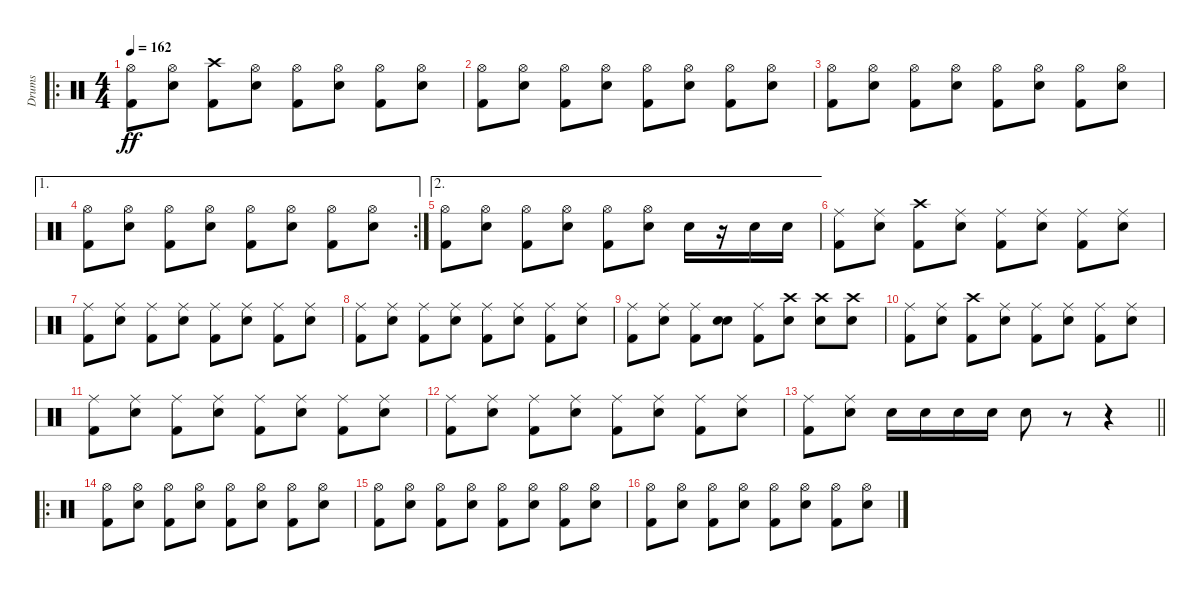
\track ("Drums" "Drums") {instrument percussion}
\staff {score}
\articulation defaults
\ro
\ts (4 4)
\tempo 162
\clef neutral
\ks c
("Hi-Hat (open)" "Kick (hit) 2").8{dy ff} ("Hi-Hat (open)" "Electric Snare (hit)").8 ("Crash high (hit)" "Kick (hit) 2").8 ("Hi-Hat (open)" "Electric Snare (hit)").8 ("Hi-Hat (open)" "Kick (hit) 2").8 ("Hi-Hat (open)" "Electric Snare (hit)").8 ("Hi-Hat (open)" "Kick (hit) 2").8 ("Hi-Hat (open)" "Electric Snare (hit)").8 |
("Hi-Hat (open)" "Kick (hit) 2").8 ("Hi-Hat (open)" "Electric Snare (hit)").8 ("Hi-Hat (open)" "Kick (hit) 2").8 ("Hi-Hat (open)" "Electric Snare (hit)").8 ("Hi-Hat (open)" "Kick (hit) 2").8 ("Hi-Hat (open)" "Electric Snare (hit)").8 ("Hi-Hat (open)" "Kick (hit) 2").8 ("Hi-Hat (open)" "Electric Snare (hit)").8 |
("Hi-Hat (open)" "Kick (hit) 2").8 ("Hi-Hat (open)" "Electric Snare (hit)").8 ("Hi-Hat (open)" "Kick (hit) 2").8 ("Hi-Hat (open)" "Electric Snare (hit)").8 ("Hi-Hat (open)" "Kick (hit) 2").8 ("Hi-Hat (open)" "Electric Snare (hit)").8 ("Hi-Hat (open)" "Kick (hit) 2").8 ("Hi-Hat (open)" "Electric Snare (hit)").8 |
\ae 1
\rc 2
("Hi-Hat (open)" "Kick (hit) 2").8 ("Hi-Hat (open)" "Electric Snare (hit)").8 ("Hi-Hat (open)" "Kick (hit) 2").8 ("Hi-Hat (open)" "Electric Snare (hit)").8 ("Hi-Hat (open)" "Kick (hit) 2").8 ("Hi-Hat (open)" "Electric Snare (hit)").8 ("Hi-Hat (open)" "Kick (hit) 2").8 ("Hi-Hat (open)" "Electric Snare (hit)").8 |
\ae 2
("Hi-Hat (open)" "Kick (hit) 2").8 ("Hi-Hat (open)" "Electric Snare (hit)").8 ("Hi-Hat (open)" "Kick (hit) 2").8 ("Hi-Hat (open)" "Electric Snare (hit)").8 ("Hi-Hat (open)" "Kick (hit) 2").8 ("Hi-Hat (open)" "Electric Snare (hit)").8 "Electric Snare (hit)".16 r.16 "Electric Snare (hit)".16 "Electric Snare (hit)".16 |
("Ride (middle)" "Kick (hit) 2").8 ("Ride (middle)" "Electric Snare (hit)").8 ("Crash high (hit)" "Kick (hit) 2").8 ("Ride (middle)" "Electric Snare (hit)").8 ("Ride (middle)" "Kick (hit) 2").8 ("Ride (middle)" "Electric Snare (hit)").8 ("Ride (middle)" "Kick (hit) 2").8 ("Ride (middle)" "Electric Snare (hit)").8 |
("Ride (middle)" "Kick (hit) 2").8 ("Ride (middle)" "Electric Snare (hit)").8 ("Ride (middle)" "Kick (hit) 2").8 ("Ride (middle)" "Electric Snare (hit)").8 ("Ride (middle)" "Kick (hit) 2").8 ("Ride (middle)" "Electric Snare (hit)").8 ("Ride (middle)" "Kick (hit) 2").8 ("Ride (middle)" "Electric Snare (hit)").8 |
("Ride (middle)" "Kick (hit) 2").8 ("Ride (middle)" "Electric Snare (hit)").8 ("Ride (middle)" "Kick (hit) 2").8 ("Ride (middle)" "Electric Snare (hit)").8 ("Ride (middle)" "Kick (hit) 2").8 ("Ride (middle)" "Electric Snare (hit)").8 ("Ride (middle)" "Kick (hit) 2").8 ("Ride (middle)" "Electric Snare (hit)").8 |
("Ride (middle)" "Kick (hit) 2").8 ("Ride (middle)" "Electric Snare (hit)").8 ("Ride (middle)" "Kick (hit) 2").8 ("Snare (hit)" "Electric Snare (hit)").8 ("Ride (middle)" "Kick (hit) 2").8 ("Crash high (hit)" "Electric Snare (hit)").8 ("Crash high (hit)" "Electric Snare (hit)").8 ("Crash high (hit)" "Electric Snare (hit)").8 |
("Ride (middle)" "Kick (hit) 2").8 ("Ride (middle)" "Electric Snare (hit)").8 ("Crash high (hit)" "Kick (hit) 2").8 ("Ride (middle)" "Electric Snare (hit)").8 ("Ride (middle)" "Kick (hit) 2").8 ("Ride (middle)" "Electric Snare (hit)").8 ("Ride (middle)" "Kick (hit) 2").8 ("Ride (middle)" "Electric Snare (hit)").8 |
("Ride (middle)" "Kick (hit) 2").8 ("Ride (middle)" "Electric Snare (hit)").8 ("Ride (middle)" "Kick (hit) 2").8 ("Ride (middle)" "Electric Snare (hit)").8 ("Ride (middle)" "Kick (hit) 2").8 ("Ride (middle)" "Electric Snare (hit)").8 ("Ride (middle)" "Kick (hit) 2").8 ("Ride (middle)" "Electric Snare (hit)").8 |
("Ride (middle)" "Kick (hit) 2").8 ("Ride (middle)" "Electric Snare (hit)").8 ("Ride (middle)" "Kick (hit) 2").8 ("Ride (middle)" "Electric Snare (hit)").8 ("Ride (middle)" "Kick (hit) 2").8 ("Ride (middle)" "Electric Snare (hit)").8 ("Ride (middle)" "Kick (hit) 2").8 ("Ride (middle)" "Electric Snare (hit)").8 |
\barLineRight lightlight
("Ride (middle)" "Kick (hit) 2").8 ("Ride (middle)" "Electric Snare (hit)").8 "Electric Snare (hit)".16 "Electric Snare (hit)".16 "Electric Snare (hit)".16 "Electric Snare (hit)".16 "Electric Snare (hit)".8 r.8 r.4 |
\ro
("Hi-Hat (open)" "Kick (hit) 2").8 ("Hi-Hat (open)" "Electric Snare (hit)").8 ("Hi-Hat (open)" "Kick (hit) 2").8 ("Hi-Hat (open)" "Electric Snare (hit)").8 ("Hi-Hat (open)" "Kick (hit) 2").8 ("Hi-Hat (open)" "Electric Snare (hit)").8 ("Hi-Hat (open)" "Kick (hit) 2").8 ("Hi-Hat (open)" "Electric Snare (hit)").8 |
("Hi-Hat (open)" "Kick (hit) 2").8 ("Hi-Hat (open)" "Electric Snare (hit)").8 ("Hi-Hat (open)" "Kick (hit) 2").8 ("Hi-Hat (open)" "Electric Snare (hit)").8 ("Hi-Hat (open)" "Kick (hit) 2").8 ("Hi-Hat (open)" "Electric Snare (hit)").8 ("Hi-Hat (open)" "Kick (hit) 2").8 ("Hi-Hat (open)" "Electric Snare (hit)").8 |
("Hi-Hat (open)" "Kick (hit) 2").8 ("Hi-Hat (open)" "Electric Snare (hit)").8 ("Hi-Hat (open)" "Kick (hit) 2").8 ("Hi-Hat (open)" "Electric Snare (hit)").8 ("Hi-Hat (open)" "Kick (hit) 2").8 ("Hi-Hat (open)" "Electric Snare (hit)").8 ("Hi-Hat (open)" "Kick (hit) 2").8 ("Hi-Hat (open)" "Electric Snare (hit)").8
